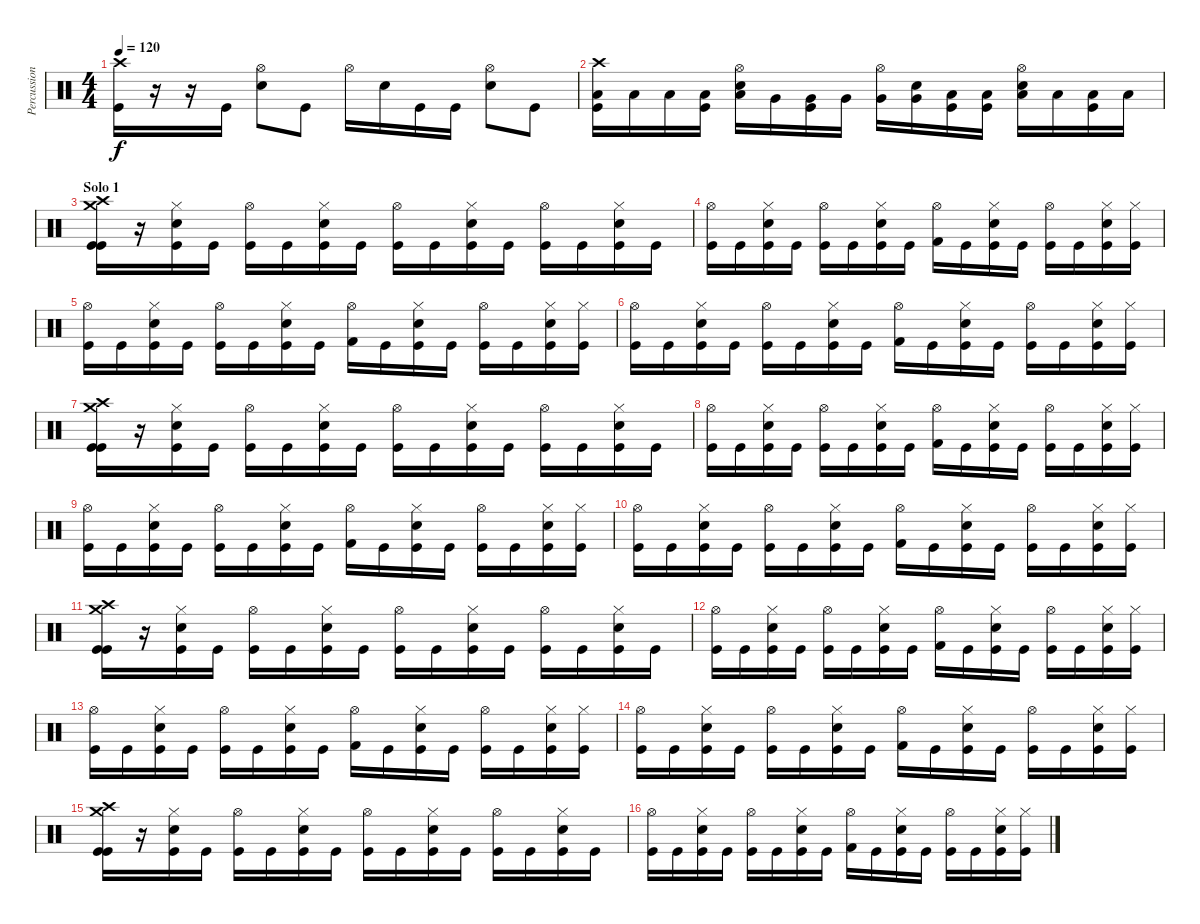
\track ("Percussion" "Percussion") {instrument percussion}
\staff {score}
\articulation defaults
\ts (4 4)
\tempo 120
\clef neutral
\ks c
("Crash high (hit)" "Kick (hit)").16{dy f} r.16 r.16 "Kick (hit)".16 ("Hi-Hat (open)" "Electric Snare (hit)").8 "Kick (hit)".8 "Hi-Hat (open)".16 "Electric Snare (hit)".16 "Kick (hit)".16 "Kick (hit)".16 ("Hi-Hat (open)" "Electric Snare (hit)").8 "Kick (hit)".8 |
("Crash high (hit)" "Low Tom (hit)" "Kick (hit)").16 "Low Tom (hit)".16 "Low Tom (hit)".16 ("Low Tom (hit)" "Kick (hit)").16 ("Hi-Hat (open)" "Low Tom (hit)" "Electric Snare (hit)").16 "Very Low Tom (hit)".16 ("Very Low Tom (hit)" "Kick (hit)").16 "Very Low Tom (hit)".16 ("Hi-Hat (open)" "Very Low Tom (hit)").16 ("Very Low Tom (hit)" "Electric Snare (hit)").16 ("Low Floor Tom (hit)" "Kick (hit)").16 ("Low Floor Tom (hit)" "Kick (hit)").16 ("Hi-Hat (open)" "Low Floor Tom (hit)" "Electric Snare (hit)").16 "Low Floor Tom (hit)".16 ("Low Floor Tom (hit)" "Kick (hit)").16 "Low Floor Tom (hit)".16 |
\section ("" "Solo 1")
("Kick (hit)" "Kick (hit)" "Crash high (hit)" "Crash medium (hit)").16 r.16 ("Kick (hit)" "Electric Snare (hit)" "Hi-Hat (closed)").16 "Kick (hit)".16 ("Kick (hit)" "Hi-Hat (open)").16 "Kick (hit)".16 ("Kick (hit)" "Electric Snare (hit)" "Hi-Hat (closed)").16 "Kick (hit)".16 ("Kick (hit)" "Hi-Hat (open)").16 "Kick (hit)".16 ("Kick (hit)" "Electric Snare (hit)" "Hi-Hat (closed)").16 "Kick (hit)".16 ("Kick (hit)" "Hi-Hat (open)").16 "Kick (hit)".16 ("Kick (hit)" "Electric Snare (hit)" "Hi-Hat (closed)").16 "Kick (hit)".16 |
("Kick (hit)" "Hi-Hat (open)").16 "Kick (hit)".16 ("Kick (hit)" "Electric Snare (hit)" "Hi-Hat (closed)").16 "Kick (hit)".16 ("Kick (hit)" "Hi-Hat (open)").16 "Kick (hit)".16 ("Kick (hit)" "Electric Snare (hit)" "Hi-Hat (closed)").16 "Kick (hit)".16 ("Kick (hit) 2" "Hi-Hat (open)").16 "Kick (hit)".16 ("Kick (hit)" "Electric Snare (hit)" "Hi-Hat (closed)").16 "Kick (hit)".16 ("Kick (hit)" "Hi-Hat (open)").16 "Kick (hit)".16 ("Kick (hit)" "Electric Snare (hit)" "Hi-Hat (closed)").16 ("Kick (hit)" "Hi-Hat (closed)").16 |
("Kick (hit)" "Hi-Hat (open)").16 "Kick (hit)".16 ("Kick (hit)" "Electric Snare (hit)" "Hi-Hat (closed)").16 "Kick (hit)".16 ("Kick (hit)" "Hi-Hat (open)").16 "Kick (hit)".16 ("Kick (hit)" "Electric Snare (hit)" "Hi-Hat (closed)").16 "Kick (hit)".16 ("Kick (hit) 2" "Hi-Hat (open)").16 "Kick (hit)".16 ("Kick (hit)" "Electric Snare (hit)" "Hi-Hat (closed)").16 "Kick (hit)".16 ("Kick (hit)" "Hi-Hat (open)").16 "Kick (hit)".16 ("Kick (hit)" "Electric Snare (hit)" "Hi-Hat (closed)").16 ("Kick (hit)" "Hi-Hat (closed)").16 |
("Kick (hit)" "Hi-Hat (open)").16 "Kick (hit)".16 ("Kick (hit)" "Electric Snare (hit)" "Hi-Hat (closed)").16 "Kick (hit)".16 ("Kick (hit)" "Hi-Hat (open)").16 "Kick (hit)".16 ("Kick (hit)" "Electric Snare (hit)" "Hi-Hat (closed)").16 "Kick (hit)".16 ("Kick (hit) 2" "Hi-Hat (open)").16 "Kick (hit)".16 ("Kick (hit)" "Electric Snare (hit)" "Hi-Hat (closed)").16 "Kick (hit)".16 ("Kick (hit)" "Hi-Hat (open)").16 "Kick (hit)".16 ("Kick (hit)" "Electric Snare (hit)" "Hi-Hat (closed)").16 ("Kick (hit)" "Hi-Hat (closed)").16 |
("Kick (hit)" "Kick (hit)" "Crash high (hit)" "Crash medium (hit)").16 r.16 ("Kick (hit)" "Electric Snare (hit)" "Hi-Hat (closed)").16 "Kick (hit)".16 ("Kick (hit)" "Hi-Hat (open)").16 "Kick (hit)".16 ("Kick (hit)" "Electric Snare (hit)" "Hi-Hat (closed)").16 "Kick (hit)".16 ("Kick (hit)" "Hi-Hat (open)").16 "Kick (hit)".16 ("Kick (hit)" "Electric Snare (hit)" "Hi-Hat (closed)").16 "Kick (hit)".16 ("Kick (hit)" "Hi-Hat (open)").16 "Kick (hit)".16 ("Kick (hit)" "Electric Snare (hit)" "Hi-Hat (closed)").16 "Kick (hit)".16 |
("Kick (hit)" "Hi-Hat (open)").16 "Kick (hit)".16 ("Kick (hit)" "Electric Snare (hit)" "Hi-Hat (closed)").16 "Kick (hit)".16 ("Kick (hit)" "Hi-Hat (open)").16 "Kick (hit)".16 ("Kick (hit)" "Electric Snare (hit)" "Hi-Hat (closed)").16 "Kick (hit)".16 ("Kick (hit) 2" "Hi-Hat (open)").16 "Kick (hit)".16 ("Kick (hit)" "Electric Snare (hit)" "Hi-Hat (closed)").16 "Kick (hit)".16 ("Kick (hit)" "Hi-Hat (open)").16 "Kick (hit)".16 ("Kick (hit)" "Electric Snare (hit)" "Hi-Hat (closed)").16 ("Kick (hit)" "Hi-Hat (closed)").16 |
("Kick (hit)" "Hi-Hat (open)").16 "Kick (hit)".16 ("Kick (hit)" "Electric Snare (hit)" "Hi-Hat (closed)").16 "Kick (hit)".16 ("Kick (hit)" "Hi-Hat (open)").16 "Kick (hit)".16 ("Kick (hit)" "Electric Snare (hit)" "Hi-Hat (closed)").16 "Kick (hit)".16 ("Kick (hit) 2" "Hi-Hat (open)").16 "Kick (hit)".16 ("Kick (hit)" "Electric Snare (hit)" "Hi-Hat (closed)").16 "Kick (hit)".16 ("Kick (hit)" "Hi-Hat (open)").16 "Kick (hit)".16 ("Kick (hit)" "Electric Snare (hit)" "Hi-Hat (closed)").16 ("Kick (hit)" "Hi-Hat (closed)").16 |
("Kick (hit)" "Hi-Hat (open)").16 "Kick (hit)".16 ("Kick (hit)" "Electric Snare (hit)" "Hi-Hat (closed)").16 "Kick (hit)".16 ("Kick (hit)" "Hi-Hat (open)").16 "Kick (hit)".16 ("Kick (hit)" "Electric Snare (hit)" "Hi-Hat (closed)").16 "Kick (hit)".16 ("Kick (hit) 2" "Hi-Hat (open)").16 "Kick (hit)".16 ("Kick (hit)" "Electric Snare (hit)" "Hi-Hat (closed)").16 "Kick (hit)".16 ("Kick (hit)" "Hi-Hat (open)").16 "Kick (hit)".16 ("Kick (hit)" "Electric Snare (hit)" "Hi-Hat (closed)").16 ("Kick (hit)" "Hi-Hat (closed)").16 |
("Kick (hit)" "Kick (hit)" "Crash high (hit)" "Crash medium (hit)").16 r.16 ("Kick (hit)" "Electric Snare (hit)" "Hi-Hat (closed)").16 "Kick (hit)".16 ("Kick (hit)" "Hi-Hat (open)").16 "Kick (hit)".16 ("Kick (hit)" "Electric Snare (hit)" "Hi-Hat (closed)").16 "Kick (hit)".16 ("Kick (hit)" "Hi-Hat (open)").16 "Kick (hit)".16 ("Kick (hit)" "Electric Snare (hit)" "Hi-Hat (closed)").16 "Kick (hit)".16 ("Kick (hit)" "Hi-Hat (open)").16 "Kick (hit)".16 ("Kick (hit)" "Electric Snare (hit)" "Hi-Hat (closed)").16 "Kick (hit)".16 |
("Kick (hit)" "Hi-Hat (open)").16 "Kick (hit)".16 ("Kick (hit)" "Electric Snare (hit)" "Hi-Hat (closed)").16 "Kick (hit)".16 ("Kick (hit)" "Hi-Hat (open)").16 "Kick (hit)".16 ("Kick (hit)" "Electric Snare (hit)" "Hi-Hat (closed)").16 "Kick (hit)".16 ("Kick (hit) 2" "Hi-Hat (open)").16 "Kick (hit)".16 ("Kick (hit)" "Electric Snare (hit)" "Hi-Hat (closed)").16 "Kick (hit)".16 ("Kick (hit)" "Hi-Hat (open)").16 "Kick (hit)".16 ("Kick (hit)" "Electric Snare (hit)" "Hi-Hat (closed)").16 ("Kick (hit)" "Hi-Hat (closed)").16 |
("Kick (hit)" "Hi-Hat (open)").16 "Kick (hit)".16 ("Kick (hit)" "Electric Snare (hit)" "Hi-Hat (closed)").16 "Kick (hit)".16 ("Kick (hit)" "Hi-Hat (open)").16 "Kick (hit)".16 ("Kick (hit)" "Electric Snare (hit)" "Hi-Hat (closed)").16 "Kick (hit)".16 ("Kick (hit) 2" "Hi-Hat (open)").16 "Kick (hit)".16 ("Kick (hit)" "Electric Snare (hit)" "Hi-Hat (closed)").16 "Kick (hit)".16 ("Kick (hit)" "Hi-Hat (open)").16 "Kick (hit)".16 ("Kick (hit)" "Electric Snare (hit)" "Hi-Hat (closed)").16 ("Kick (hit)" "Hi-Hat (closed)").16 |
("Kick (hit)" "Hi-Hat (open)").16 "Kick (hit)".16 ("Kick (hit)" "Electric Snare (hit)" "Hi-Hat (closed)").16 "Kick (hit)".16 ("Kick (hit)" "Hi-Hat (open)").16 "Kick (hit)".16 ("Kick (hit)" "Electric Snare (hit)" "Hi-Hat (closed)").16 "Kick (hit)".16 ("Kick (hit) 2" "Hi-Hat (open)").16 "Kick (hit)".16 ("Kick (hit)" "Electric Snare (hit)" "Hi-Hat (closed)").16 "Kick (hit)".16 ("Kick (hit)" "Hi-Hat (open)").16 "Kick (hit)".16 ("Kick (hit)" "Electric Snare (hit)" "Hi-Hat (closed)").16 ("Kick (hit)" "Hi-Hat (closed)").16 |
("Kick (hit)" "Kick (hit)" "Crash high (hit)" "Crash medium (hit)").16 r.16 ("Kick (hit)" "Electric Snare (hit)" "Hi-Hat (closed)").16 "Kick (hit)".16 ("Kick (hit)" "Hi-Hat (open)").16 "Kick (hit)".16 ("Kick (hit)" "Electric Snare (hit)" "Hi-Hat (closed)").16 "Kick (hit)".16 ("Kick (hit)" "Hi-Hat (open)").16 "Kick (hit)".16 ("Kick (hit)" "Electric Snare (hit)" "Hi-Hat (closed)").16 "Kick (hit)".16 ("Kick (hit)" "Hi-Hat (open)").16 "Kick (hit)".16 ("Kick (hit)" "Electric Snare (hit)" "Hi-Hat (closed)").16 "Kick (hit)".16 |
("Kick (hit)" "Hi-Hat (open)").16 "Kick (hit)".16 ("Kick (hit)" "Electric Snare (hit)" "Hi-Hat (closed)").16 "Kick (hit)".16 ("Kick (hit)" "Hi-Hat (open)").16 "Kick (hit)".16 ("Kick (hit)" "Electric Snare (hit)" "Hi-Hat (closed)").16 "Kick (hit)".16 ("Kick (hit) 2" "Hi-Hat (open)").16 "Kick (hit)".16 ("Kick (hit)" "Electric Snare (hit)" "Hi-Hat (closed)").16 "Kick (hit)".16 ("Kick (hit)" "Hi-Hat (open)").16 "Kick (hit)".16 ("Kick (hit)" "Electric Snare (hit)" "Hi-Hat (closed)").16 ("Kick (hit)" "Hi-Hat (closed)").16
